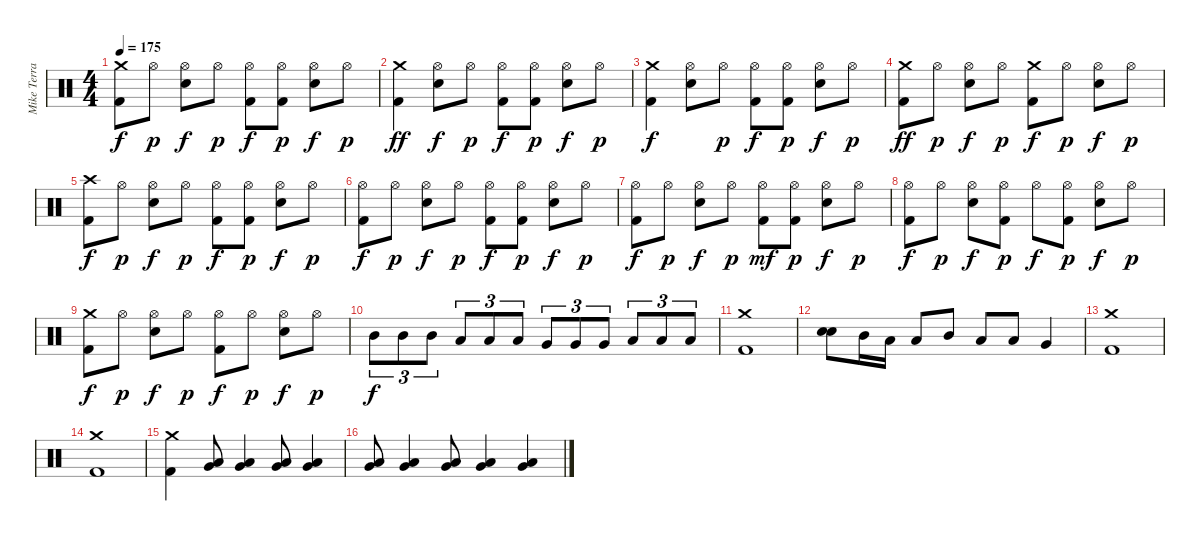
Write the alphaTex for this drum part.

\track ("Mike Terrana" "Mike Terra") {instrument percussion}
\staff {score}
\articulation defaults
\ts (4 4)
\tempo 175
\clef neutral
\ks c
("Crash medium (hit)" "Kick (hit) 2").8{dy f} "Hi-Hat (open)".8{dy p} ("Hi-Hat (open)" "Snare (hit) 2").8{dy f} "Hi-Hat (open)".8{dy p} ("Hi-Hat (open)" "Kick (hit) 2").8{dy f} ("Hi-Hat (open)" "Kick (hit) 2").8{dy p} ("Hi-Hat (open)" "Snare (hit) 2").8{dy f} "Hi-Hat (open)".8{dy p} |
("Crash medium (hit)" "Kick (hit) 2").4{dy ff} ("Hi-Hat (open)" "Snare (hit) 2").8{dy f} "Hi-Hat (open)".8{dy p} ("Hi-Hat (open)" "Kick (hit) 2").8{dy f} ("Hi-Hat (open)" "Kick (hit) 2").8{dy p} ("Hi-Hat (open)" "Snare (hit) 2").8{dy f} "Hi-Hat (open)".8{dy p} |
("Crash medium (hit)" "Kick (hit) 2").4{dy f} ("Hi-Hat (open)" "Snare (hit) 2").8 "Hi-Hat (open)".8{dy p} ("Hi-Hat (open)" "Kick (hit) 2").8{dy f} ("Hi-Hat (open)" "Kick (hit) 2").8{dy p} ("Hi-Hat (open)" "Snare (hit) 2").8{dy f} "Hi-Hat (open)".8{dy p} |
("Crash medium (hit)" "Kick (hit) 2").8{dy ff} "Hi-Hat (open)".8{dy p} ("Hi-Hat (open)" "Snare (hit) 2").8{dy f} "Hi-Hat (open)".8{dy p} ("Crash medium (hit)" "Kick (hit) 2").8{dy f} "Hi-Hat (open)".8{dy p} ("Hi-Hat (open)" "Snare (hit) 2").8{dy f} "Hi-Hat (open)".8{dy p} |
("Crash high (hit)" "Kick (hit) 2").8{dy f} "Hi-Hat (open)".8{dy p} ("Hi-Hat (open)" "Snare (hit) 2").8{dy f} "Hi-Hat (open)".8{dy p} ("Hi-Hat (open)" "Kick (hit) 2").8{dy f} ("Hi-Hat (open)" "Kick (hit) 2").8{dy p} ("Hi-Hat (open)" "Snare (hit) 2").8{dy f} "Hi-Hat (open)".8{dy p} |
("Hi-Hat (open)" "Kick (hit) 2").8{dy f} "Hi-Hat (open)".8{dy p} ("Hi-Hat (open)" "Snare (hit) 2").8{dy f} "Hi-Hat (open)".8{dy p} ("Hi-Hat (open)" "Kick (hit) 2").8{dy f} ("Hi-Hat (open)" "Kick (hit) 2").8{dy p} ("Hi-Hat (open)" "Snare (hit) 2").8{dy f} "Hi-Hat (open)".8{dy p} |
("Hi-Hat (open)" "Kick (hit) 2").8{dy f} "Hi-Hat (open)".8{dy p} ("Hi-Hat (open)" "Snare (hit) 2").8{dy f} "Hi-Hat (open)".8{dy p} ("Hi-Hat (open)" "Kick (hit) 2").8{dy mf} ("Hi-Hat (open)" "Kick (hit) 2").8{dy p} ("Hi-Hat (open)" "Snare (hit) 2").8{dy f} "Hi-Hat (open)".8{dy p} |
("Hi-Hat (open)" "Kick (hit) 2").8{dy f} "Hi-Hat (open)".8{dy p} ("Hi-Hat (open)" "Snare (hit) 2").8{dy f} ("Hi-Hat (open)" "Kick (hit) 2").8{dy p} "Hi-Hat (open)".8{dy f} ("Hi-Hat (open)" "Kick (hit) 2").8{dy p} ("Hi-Hat (open)" "Snare (hit) 2").8{dy f} "Hi-Hat (open)".8{dy p} |
("Crash medium (hit)" "Kick (hit) 2").8{dy f} "Hi-Hat (open)".8{dy p} ("Hi-Hat (open)" "Snare (hit) 2").8{dy f} "Hi-Hat (open)".8{dy p} ("Hi-Hat (open)" "Kick (hit) 2").8{dy f} "Hi-Hat (open)".8{dy p} ("Hi-Hat (open)" "Snare (hit) 2").8{dy f} "Hi-Hat (open)".8{dy p} |
"Mid Tom (hit)".8{tu (3 2) dy f} "Mid Tom (hit)".8{tu (3 2)} "Mid Tom (hit)".8{tu (3 2)} "Low Tom (hit)".8{tu (3 2)} "Low Tom (hit)".8{tu (3 2)} "Low Tom (hit)".8{tu (3 2)} "Very Low Tom (hit)".8{tu (3 2)} "Very Low Tom (hit)".8{tu (3 2)} "Very Low Tom (hit)".8{tu (3 2)} "Low Floor Tom (hit)".8{tu (3 2)} "Low Floor Tom (hit)".8{tu (3 2)} "Low Floor Tom (hit)".8{tu (3 2)} |
("Crash medium (hit)" "Kick (hit) 2").1 |
("Snare (hit) 2" "Electric Snare (hit)").8 "Mid Tom (hit)".16 "Low Tom (hit)".16 "Low Tom (hit)".8 "Mid Tom (hit)".8 "Low Tom (hit)".8 "Low Tom (hit)".8 "Very Low Tom (hit)".4 |
("Crash medium (hit)" "Kick (hit) 2").1 |
("Crash medium (hit)" "Kick (hit) 2").1 |
("Crash medium (hit)" "Kick (hit) 2").4 ("Low Tom (hit)" "Very Low Tom (hit)").8 ("Low Tom (hit)" "Very Low Tom (hit)").4 ("Low Tom (hit)" "Very Low Tom (hit)").8 ("Low Tom (hit)" "Very Low Tom (hit)").4 |
("Low Tom (hit)" "Very Low Tom (hit)").8 ("Low Tom (hit)" "Very Low Tom (hit)").4 ("Low Tom (hit)" "Very Low Tom (hit)").8 ("Low Tom (hit)" "Very Low Tom (hit)").4 ("Low Tom (hit)" "Very Low Tom (hit)").4
